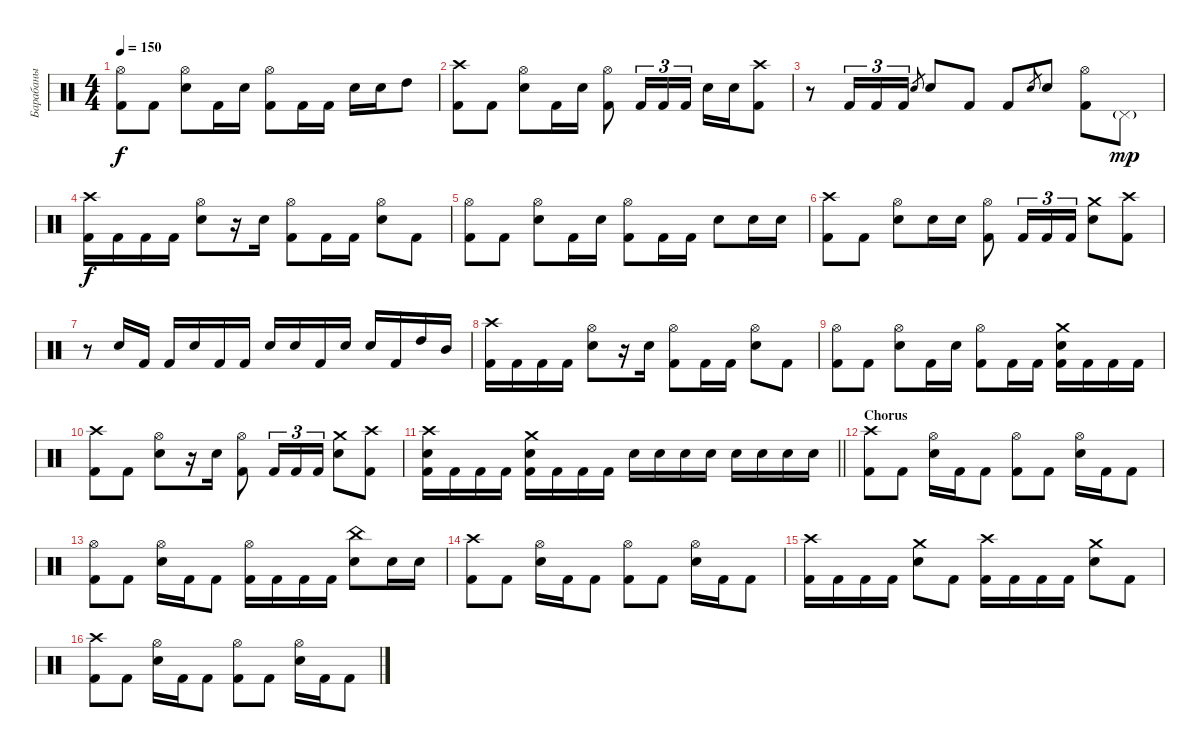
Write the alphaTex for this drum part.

\track ("Барабаны" "Барабаны") {instrument percussion}
\staff {score}
\articulation defaults
\ts (4 4)
\tempo 150
\clef neutral
\ks c
("Kick (hit) 2" "Hi-Hat (open)").8{dy f} "Kick (hit) 2".8 ("Electric Snare (hit)" "Hi-Hat (open)").8 "Kick (hit) 2".16 "Electric Snare (hit)".16 ("Kick (hit) 2" "Hi-Hat (open)").8 "Kick (hit) 2".16 "Kick (hit) 2".16 "Electric Snare (hit)".16 "Electric Snare (hit)".16 "High Tom (hit)".8 |
("Kick (hit) 2" "Crash high (hit)").8 "Kick (hit) 2".8 ("Electric Snare (hit)" "Hi-Hat (open)").8 "Kick (hit) 2".16 "Electric Snare (hit)".16 ("Kick (hit) 2" "Hi-Hat (open)").8 "Kick (hit) 2".16{tu (3 2)} "Kick (hit) 2".16{tu (3 2)} "Kick (hit) 2".16{tu (3 2)} "Electric Snare (hit)".16 "Electric Snare (hit)".16 ("Kick (hit) 2" "Crash high (hit)").8 |
r.8 "Kick (hit) 2".16{tu (3 2)} "Kick (hit) 2".16{tu (3 2)} "Kick (hit) 2".16{tu (3 2)} "Electric Snare (hit)".8{gr} "Electric Snare (hit)".8 "Kick (hit) 2".8 "Kick (hit) 2".8 "Electric Snare (hit)".8{gr} "Electric Snare (hit)".8 ("Kick (hit) 2" "Hi-Hat (open)").8 "Pedal Hi-Hat (hit)"{g}.8{dy mp} |
("Kick (hit) 2" "Crash high (hit)").16{dy f} "Kick (hit) 2".16 "Kick (hit) 2".16 "Kick (hit) 2".16 ("Electric Snare (hit)" "Hi-Hat (open)").8 r.16 "Electric Snare (hit)".16 ("Kick (hit) 2" "Hi-Hat (open)").8 "Kick (hit) 2".16 "Kick (hit) 2".16 ("Electric Snare (hit)" "Hi-Hat (open)").8 "Kick (hit) 2".8 |
("Kick (hit) 2" "Hi-Hat (open)").8 "Kick (hit) 2".8 ("Electric Snare (hit)" "Hi-Hat (open)").8 "Kick (hit) 2".16 "Electric Snare (hit)".16 ("Kick (hit) 2" "Hi-Hat (open)").8 "Kick (hit) 2".16 "Kick (hit) 2".16 "Electric Snare (hit)".8 "Electric Snare (hit)".16 "Electric Snare (hit)".16 |
("Kick (hit) 2" "Crash high (hit)").8 "Kick (hit) 2".8 ("Electric Snare (hit)" "Hi-Hat (open)").8 "Electric Snare (hit)".16 "Electric Snare (hit)".16 ("Kick (hit) 2" "Hi-Hat (open)").8 "Kick (hit) 2".16{tu (3 2)} "Kick (hit) 2".16{tu (3 2)} "Kick (hit) 2".16{tu (3 2)} ("Electric Snare (hit)" "Crash medium (hit)").8 ("Kick (hit) 2" "Crash high (hit)").8 |
r.8 "Electric Snare (hit)".16 "Kick (hit) 2".16 "Kick (hit) 2".16 "Electric Snare (hit)".16 "Kick (hit) 2".16 "Kick (hit) 2".16 "Electric Snare (hit)".16 "Electric Snare (hit)".16 "Kick (hit) 2".16 "Electric Snare (hit)".16 "Electric Snare (hit)".16 "Kick (hit) 2".16 "High Tom (hit)".16 "Mid Tom (hit)".16 |
("Kick (hit) 2" "Crash high (hit)").16 "Kick (hit) 2".16 "Kick (hit) 2".16 "Kick (hit) 2".16 ("Electric Snare (hit)" "Hi-Hat (open)").8 r.16 "Electric Snare (hit)".16 ("Kick (hit) 2" "Hi-Hat (open)").8 "Kick (hit) 2".16 "Kick (hit) 2".16 ("Electric Snare (hit)" "Hi-Hat (open)").8 "Kick (hit) 2".8 |
("Kick (hit) 2" "Hi-Hat (open)").8 "Kick (hit) 2".8 ("Electric Snare (hit)" "Hi-Hat (open)").8 "Kick (hit) 2".16 "Electric Snare (hit)".16 ("Kick (hit) 2" "Hi-Hat (open)").8 "Kick (hit) 2".16 "Kick (hit) 2".16 ("Electric Snare (hit)" "Kick (hit) 2" "Crash medium (hit)").16 "Kick (hit) 2".16 "Kick (hit) 2".16 "Kick (hit) 2".16 |
("Kick (hit) 2" "Crash high (hit)").8 "Kick (hit) 2".8 ("Electric Snare (hit)" "Hi-Hat (open)").8 r.16 "Electric Snare (hit)".16 ("Kick (hit) 2" "Hi-Hat (open)").8 "Kick (hit) 2".16{tu (3 2)} "Kick (hit) 2".16{tu (3 2)} "Kick (hit) 2".16{tu (3 2)} ("Electric Snare (hit)" "Crash medium (hit)").8 ("Kick (hit) 2" "Crash high (hit)").8 |
\barLineRight lightlight
("Electric Snare (hit)" "Kick (hit) 2" "Crash high (hit)").16 "Kick (hit) 2".16 "Kick (hit) 2".16 "Kick (hit) 2".16 ("Electric Snare (hit)" "Kick (hit) 2" "Crash medium (hit)").16 "Kick (hit) 2".16 "Kick (hit) 2".16 "Kick (hit) 2".16 "Electric Snare (hit)".16 "Electric Snare (hit)".16 "Electric Snare (hit)".16 "Electric Snare (hit)".16 "Electric Snare (hit)".16 "Electric Snare (hit)".16 "Electric Snare (hit)".16 "Electric Snare (hit)".16 |
\section ("" "Chorus")
("Kick (hit) 2" "Crash high (hit)").8 "Kick (hit) 2".8 ("Electric Snare (hit)" "Hi-Hat (open)").16 "Kick (hit) 2".16 "Kick (hit) 2".8 ("Kick (hit) 2" "Hi-Hat (open)").8 "Kick (hit) 2".8 ("Electric Snare (hit)" "Hi-Hat (open)").16 "Kick (hit) 2".16 "Kick (hit) 2".8 |
("Kick (hit) 2" "Hi-Hat (open)").8 "Kick (hit) 2".8 ("Electric Snare (hit)" "Hi-Hat (open)").16 "Kick (hit) 2".16 "Kick (hit) 2".8 ("Kick (hit) 2" "Hi-Hat (open)").16 "Kick (hit) 2".16 "Kick (hit) 2".16 "Kick (hit) 2".16 ("Electric Snare (hit)" "China (hit)").8 "Electric Snare (hit)".16 "Electric Snare (hit)".16 |
("Kick (hit) 2" "Crash high (hit)").8 "Kick (hit) 2".8 ("Electric Snare (hit)" "Hi-Hat (open)").16 "Kick (hit) 2".16 "Kick (hit) 2".8 ("Kick (hit) 2" "Hi-Hat (open)").8 "Kick (hit) 2".8 ("Electric Snare (hit)" "Hi-Hat (open)").16 "Kick (hit) 2".16 "Kick (hit) 2".8 |
("Kick (hit) 2" "Crash high (hit)").16 "Kick (hit) 2".16 "Kick (hit) 2".16 "Kick (hit) 2".16 ("Electric Snare (hit)" "Crash medium (hit)").8 "Kick (hit) 2".8 ("Kick (hit) 2" "Crash high (hit)").16 "Kick (hit) 2".16 "Kick (hit) 2".16 "Kick (hit) 2".16 ("Electric Snare (hit)" "Crash medium (hit)").8 "Kick (hit) 2".8 |
("Kick (hit) 2" "Crash high (hit)").8 "Kick (hit) 2".8 ("Electric Snare (hit)" "Hi-Hat (open)").16 "Kick (hit) 2".16 "Kick (hit) 2".8 ("Kick (hit) 2" "Hi-Hat (open)").8 "Kick (hit) 2".8 ("Electric Snare (hit)" "Hi-Hat (open)").16 "Kick (hit) 2".16 "Kick (hit) 2".8
